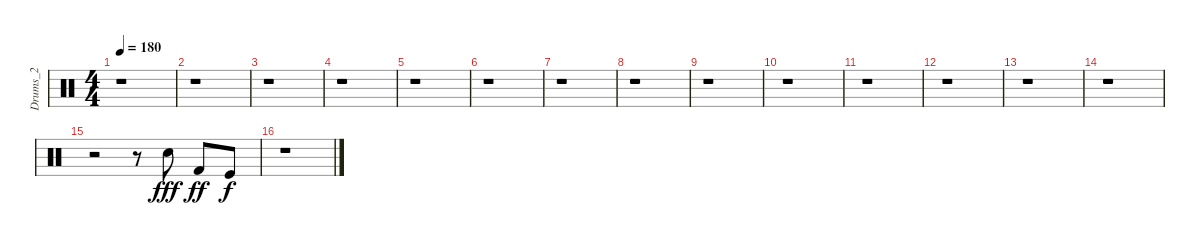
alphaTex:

\track ("Drums_2" "Drums_2") {instrument percussion}
\staff {score}
\articulation defaults
\ts (4 4)
\tempo 180
\clef neutral
\ks c
r.1{dy fff} |
r.1 |
r.1 |
r.1 |
r.1 |
r.1 |
r.1 |
r.1 |
r.1 |
r.1 |
r.1 |
r.1 |
r.1 |
r.1 |
r.2 r.8 "Snare (hit) 2".8 "Kick (hit) 2".8{dy ff} "Kick (hit)".8{dy f} |
r.1
